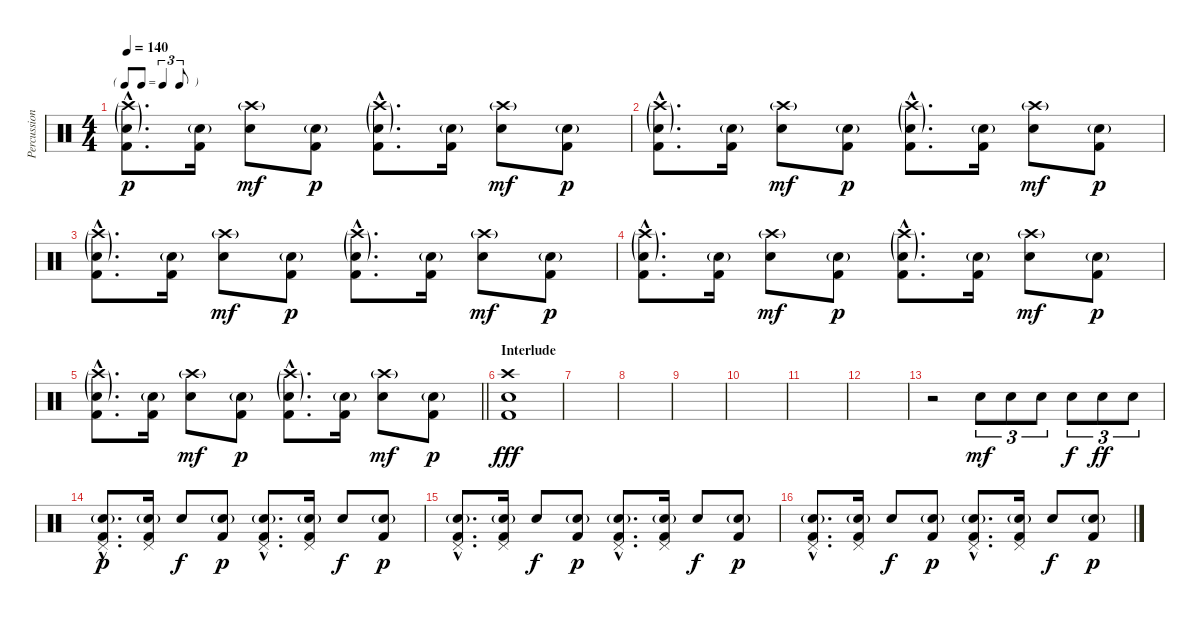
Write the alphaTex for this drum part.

\track ("Percussion" "Percussion") {instrument percussion}
\staff {score}
\articulation defaults
\ts (4 4)
\tf triplet8th
\tempo 140
\clef neutral
\ks c
("Crash high (hit)"{g hac} "Snare (hit) 2"{g hac} "Kick (hit) 2"{hac}).8{d dy p} ("Snare (hit) 2"{g} "Kick (hit) 2").16 ("Crash high (hit)"{g} "Snare (hit) 2").8{dy mf} ("Snare (hit) 2"{g} "Kick (hit) 2").8{dy p} ("Crash high (hit)"{g hac} "Snare (hit) 2"{g hac} "Kick (hit) 2"{hac}).8{d} ("Snare (hit) 2"{g} "Kick (hit) 2").16 ("Crash high (hit)"{g} "Snare (hit) 2").8{dy mf} ("Snare (hit) 2"{g} "Kick (hit) 2").8{dy p} |
("Crash high (hit)"{g hac} "Snare (hit) 2"{g hac} "Kick (hit) 2"{hac}).8{d} ("Snare (hit) 2"{g} "Kick (hit) 2").16 ("Crash high (hit)"{g} "Snare (hit) 2").8{dy mf} ("Snare (hit) 2"{g} "Kick (hit) 2").8{dy p} ("Crash high (hit)"{g hac} "Snare (hit) 2"{g hac} "Kick (hit) 2"{hac}).8{d} ("Snare (hit) 2"{g} "Kick (hit) 2").16 ("Crash high (hit)"{g} "Snare (hit) 2").8{dy mf} ("Snare (hit) 2"{g} "Kick (hit) 2").8{dy p} |
("Crash high (hit)"{g hac} "Snare (hit) 2"{g hac} "Kick (hit) 2"{hac}).8{d} ("Snare (hit) 2"{g} "Kick (hit) 2").16 ("Crash high (hit)"{g} "Snare (hit) 2").8{dy mf} ("Snare (hit) 2"{g} "Kick (hit) 2").8{dy p} ("Crash high (hit)"{g hac} "Snare (hit) 2"{g hac} "Kick (hit) 2"{hac}).8{d} ("Snare (hit) 2"{g} "Kick (hit) 2").16 ("Crash high (hit)"{g} "Snare (hit) 2").8{dy mf} ("Snare (hit) 2"{g} "Kick (hit) 2").8{dy p} |
("Crash high (hit)"{g hac} "Snare (hit) 2"{g hac} "Kick (hit) 2"{hac}).8{d} ("Snare (hit) 2"{g} "Kick (hit) 2").16 ("Crash high (hit)"{g} "Snare (hit) 2").8{dy mf} ("Snare (hit) 2"{g} "Kick (hit) 2").8{dy p} ("Crash high (hit)"{g hac} "Snare (hit) 2"{g hac} "Kick (hit) 2"{hac}).8{d} ("Snare (hit) 2"{g} "Kick (hit) 2").16 ("Crash high (hit)"{g} "Snare (hit) 2").8{dy mf} ("Snare (hit) 2"{g} "Kick (hit) 2").8{dy p} |
\barLineRight lightlight
("Crash high (hit)"{g hac} "Snare (hit) 2"{g hac} "Kick (hit) 2"{hac}).8{d} ("Snare (hit) 2"{g} "Kick (hit) 2").16 ("Crash high (hit)"{g} "Snare (hit) 2").8{dy mf} ("Snare (hit) 2"{g} "Kick (hit) 2").8{dy p} ("Crash high (hit)"{g hac} "Snare (hit) 2"{g hac} "Kick (hit) 2"{hac}).8{d} ("Snare (hit) 2"{g} "Kick (hit) 2").16 ("Crash high (hit)"{g} "Snare (hit) 2").8{dy mf} ("Snare (hit) 2"{g} "Kick (hit) 2").8{dy p} |
\section ("" "Interlude")
("Crash high (hit)" "Snare (hit) 2" "Kick (hit) 2").1{dy fff} |
|
|
|
|
|
|
r.2 "Snare (hit) 2".8{tu (3 2) dy mf} "Snare (hit) 2".8{tu (3 2)} "Snare (hit) 2".8{tu (3 2)} "Snare (hit) 2".8{tu (3 2) dy f} "Snare (hit) 2".8{tu (3 2) dy ff} "Snare (hit) 2".8{tu (3 2)} |
("Pedal Hi-Hat (hit)"{hac} "Snare (hit) 2"{g hac} "Kick (hit) 2"{hac}).8{d dy p} ("Pedal Hi-Hat (hit)" "Snare (hit) 2"{g} "Kick (hit) 2").16 "Snare (hit) 2".8{dy f} ("Snare (hit) 2"{g} "Kick (hit) 2").8{dy p} ("Pedal Hi-Hat (hit)"{hac} "Snare (hit) 2"{g hac} "Kick (hit) 2"{hac}).8{d} ("Pedal Hi-Hat (hit)" "Snare (hit) 2"{g} "Kick (hit) 2").16 "Snare (hit) 2".8{dy f} ("Snare (hit) 2"{g} "Kick (hit) 2").8{dy p} |
("Pedal Hi-Hat (hit)"{hac} "Snare (hit) 2"{g hac} "Kick (hit) 2"{hac}).8{d} ("Pedal Hi-Hat (hit)" "Snare (hit) 2"{g} "Kick (hit) 2").16 "Snare (hit) 2".8{dy f} ("Snare (hit) 2"{g} "Kick (hit) 2").8{dy p} ("Pedal Hi-Hat (hit)"{hac} "Snare (hit) 2"{g hac} "Kick (hit) 2"{hac}).8{d} ("Pedal Hi-Hat (hit)" "Snare (hit) 2"{g} "Kick (hit) 2").16 "Snare (hit) 2".8{dy f} ("Snare (hit) 2"{g} "Kick (hit) 2").8{dy p} |
("Pedal Hi-Hat (hit)"{hac} "Snare (hit) 2"{g hac} "Kick (hit) 2"{hac}).8{d} ("Pedal Hi-Hat (hit)" "Snare (hit) 2"{g} "Kick (hit) 2").16 "Snare (hit) 2".8{dy f} ("Snare (hit) 2"{g} "Kick (hit) 2").8{dy p} ("Pedal Hi-Hat (hit)"{hac} "Snare (hit) 2"{g hac} "Kick (hit) 2"{hac}).8{d} ("Pedal Hi-Hat (hit)" "Snare (hit) 2"{g} "Kick (hit) 2").16 "Snare (hit) 2".8{dy f} ("Snare (hit) 2"{g} "Kick (hit) 2").8{dy p}
